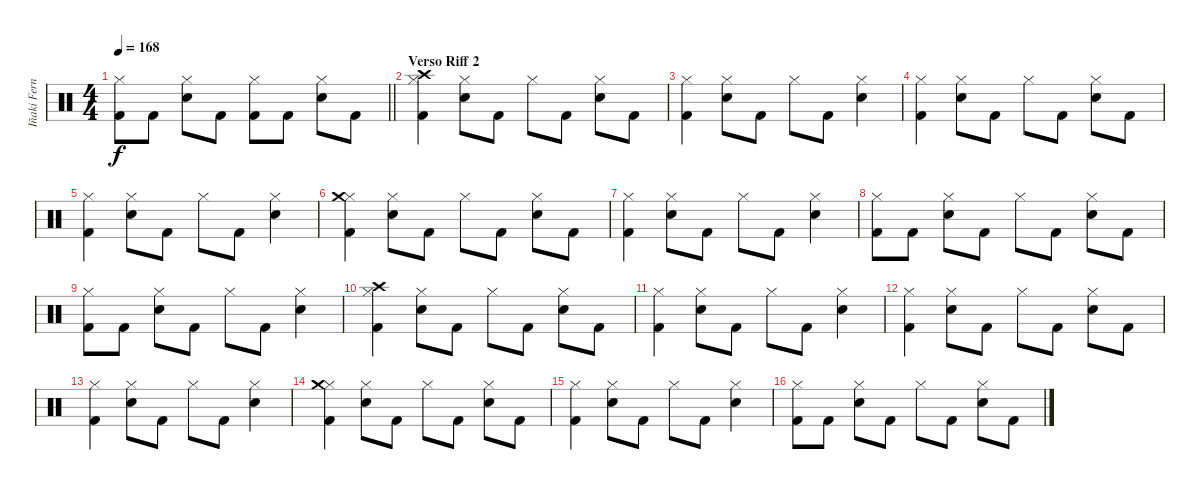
\track ("Iñaki Fernández" "Iñaki Fern") {instrument percussion}
\staff {score}
\articulation defaults
\ts (4 4)
\tempo 168
\clef neutral
\barLineRight lightlight
\ks c
("Hi-Hat (closed)" "Kick (hit) 2").8{dy f} "Kick (hit) 2".8 ("Hi-Hat (closed)" "Snare (hit) 2").8 "Kick (hit) 2".8 ("Hi-Hat (closed)" "Kick (hit) 2").8 "Kick (hit) 2".8 ("Hi-Hat (closed)" "Snare (hit) 2").8 "Kick (hit) 2".8 |
\section ("" "Verso Riff 2")
("Hi-Hat (closed)" "Crash high (hit)" "Kick (hit) 2").4 ("Hi-Hat (closed)" "Snare (hit) 2").8 "Kick (hit) 2".8 "Hi-Hat (closed)".8 "Kick (hit) 2".8 ("Hi-Hat (closed)" "Snare (hit) 2").8 "Kick (hit) 2".8 |
("Hi-Hat (closed)" "Kick (hit) 2").4 ("Hi-Hat (closed)" "Snare (hit) 2").8 "Kick (hit) 2".8 "Hi-Hat (closed)".8 "Kick (hit) 2".8 ("Hi-Hat (closed)" "Snare (hit) 2").4 |
("Hi-Hat (closed)" "Kick (hit) 2").4 ("Hi-Hat (closed)" "Snare (hit) 2").8 "Kick (hit) 2".8 "Hi-Hat (closed)".8 "Kick (hit) 2".8 ("Hi-Hat (closed)" "Snare (hit) 2").8 "Kick (hit) 2".8 |
("Hi-Hat (closed)" "Kick (hit) 2").4 ("Hi-Hat (closed)" "Snare (hit) 2").8 "Kick (hit) 2".8 "Hi-Hat (closed)".8 "Kick (hit) 2".8 ("Hi-Hat (closed)" "Snare (hit) 2").4 |
("Hi-Hat (closed)" "Crash medium (hit)" "Kick (hit) 2").4 ("Hi-Hat (closed)" "Snare (hit) 2").8 "Kick (hit) 2".8 "Hi-Hat (closed)".8 "Kick (hit) 2".8 ("Hi-Hat (closed)" "Snare (hit) 2").8 "Kick (hit) 2".8 |
("Hi-Hat (closed)" "Kick (hit) 2").4 ("Hi-Hat (closed)" "Snare (hit) 2").8 "Kick (hit) 2".8 "Hi-Hat (closed)".8 "Kick (hit) 2".8 ("Hi-Hat (closed)" "Snare (hit) 2").4 |
("Hi-Hat (closed)" "Kick (hit) 2").8 "Kick (hit) 2".8 ("Hi-Hat (closed)" "Snare (hit) 2").8 "Kick (hit) 2".8 "Hi-Hat (closed)".8 "Kick (hit) 2".8 ("Hi-Hat (closed)" "Snare (hit) 2").8 "Kick (hit) 2".8 |
("Hi-Hat (closed)" "Kick (hit) 2").8 "Kick (hit) 2".8 ("Hi-Hat (closed)" "Snare (hit) 2").8 "Kick (hit) 2".8 "Hi-Hat (closed)".8 "Kick (hit) 2".8 ("Hi-Hat (closed)" "Snare (hit) 2").4 |
("Hi-Hat (closed)" "Crash high (hit)" "Kick (hit) 2").4 ("Hi-Hat (closed)" "Snare (hit) 2").8 "Kick (hit) 2".8 "Hi-Hat (closed)".8 "Kick (hit) 2".8 ("Hi-Hat (closed)" "Snare (hit) 2").8 "Kick (hit) 2".8 |
("Hi-Hat (closed)" "Kick (hit) 2").4 ("Hi-Hat (closed)" "Snare (hit) 2").8 "Kick (hit) 2".8 "Hi-Hat (closed)".8 "Kick (hit) 2".8 ("Hi-Hat (closed)" "Snare (hit) 2").4 |
("Hi-Hat (closed)" "Kick (hit) 2").4 ("Hi-Hat (closed)" "Snare (hit) 2").8 "Kick (hit) 2".8 "Hi-Hat (closed)".8 "Kick (hit) 2".8 ("Hi-Hat (closed)" "Snare (hit) 2").8 "Kick (hit) 2".8 |
("Hi-Hat (closed)" "Kick (hit) 2").4 ("Hi-Hat (closed)" "Snare (hit) 2").8 "Kick (hit) 2".8 "Hi-Hat (closed)".8 "Kick (hit) 2".8 ("Hi-Hat (closed)" "Snare (hit) 2").4 |
("Hi-Hat (closed)" "Crash medium (hit)" "Kick (hit) 2").4 ("Hi-Hat (closed)" "Snare (hit) 2").8 "Kick (hit) 2".8 "Hi-Hat (closed)".8 "Kick (hit) 2".8 ("Hi-Hat (closed)" "Snare (hit) 2").8 "Kick (hit) 2".8 |
("Hi-Hat (closed)" "Kick (hit) 2").4 ("Hi-Hat (closed)" "Snare (hit) 2").8 "Kick (hit) 2".8 "Hi-Hat (closed)".8 "Kick (hit) 2".8 ("Hi-Hat (closed)" "Snare (hit) 2").4 |
("Hi-Hat (closed)" "Kick (hit) 2").8 "Kick (hit) 2".8 ("Hi-Hat (closed)" "Snare (hit) 2").8 "Kick (hit) 2".8 "Hi-Hat (closed)".8 "Kick (hit) 2".8 ("Hi-Hat (closed)" "Snare (hit) 2").8 "Kick (hit) 2".8
